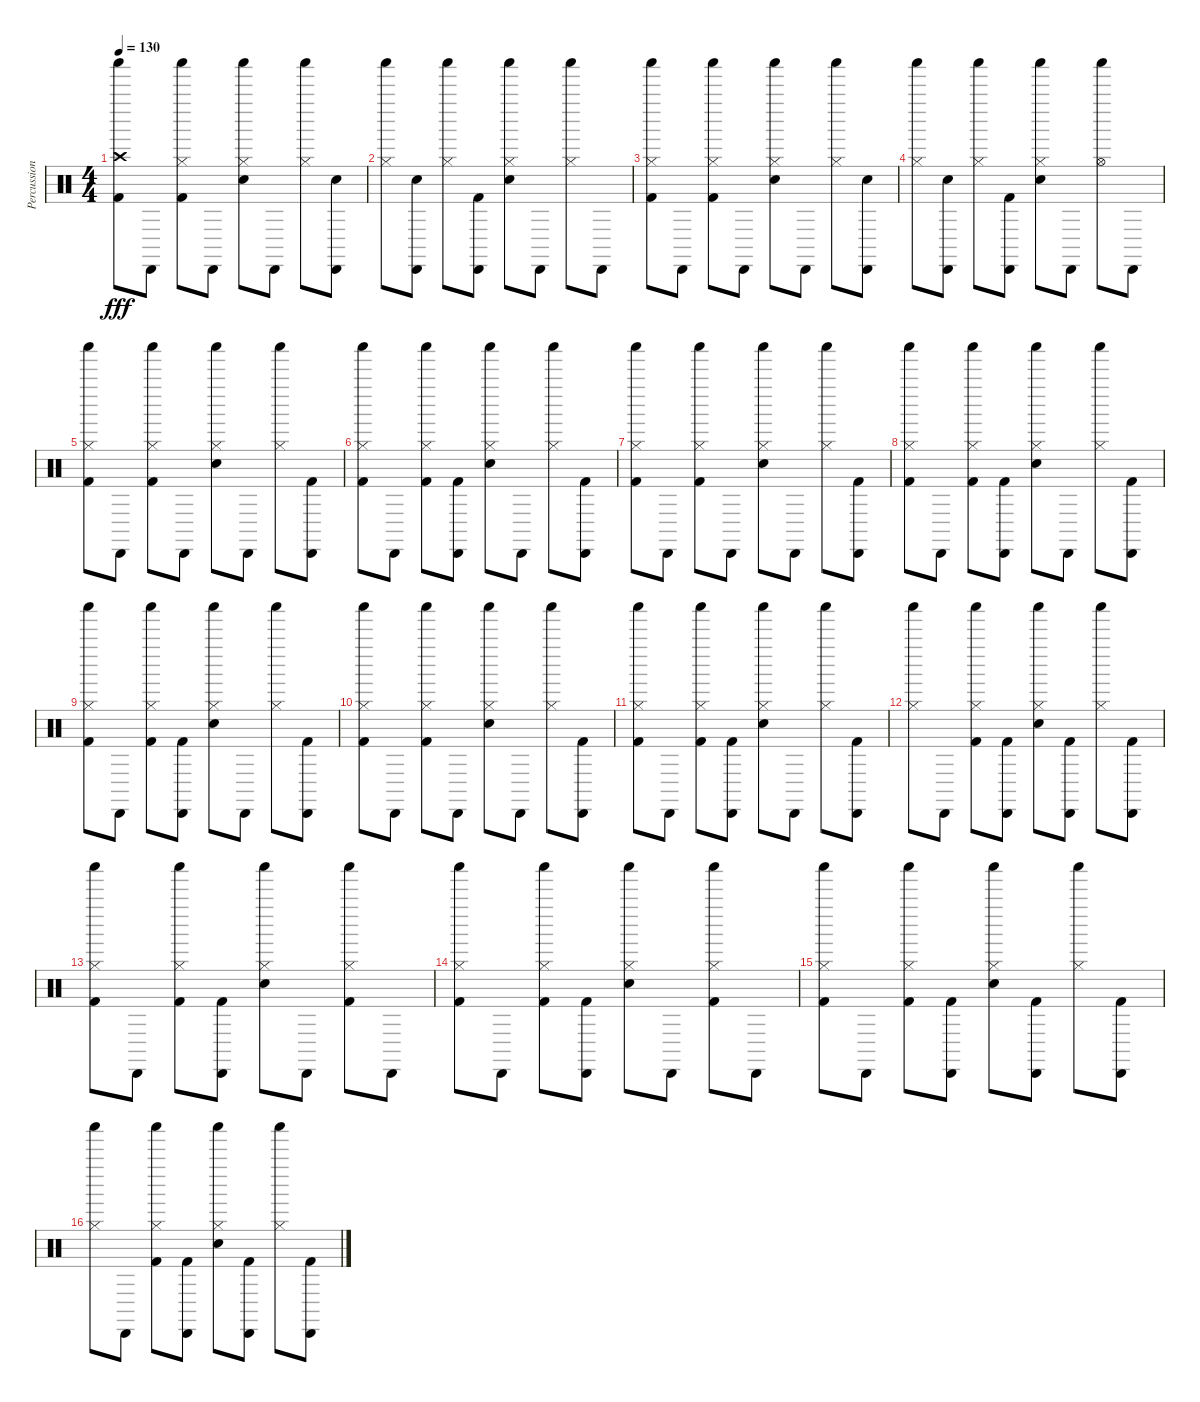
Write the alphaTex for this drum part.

\track ("Percussion" "Percussion") {instrument percussion}
\staff {score}
\articulation defaults
\ts (4 4)
\tempo 130
\clef neutral
\ks c
("Shaker (hit)" "Crash high (hit)" "Kick (hit) 2").8{dy fff} "Cabasa (hit)".8 ("Shaker (hit)" "Hi-Hat (closed)" "Kick (hit) 2").8 "Cabasa (hit)".8 ("Shaker (hit)" "Hi-Hat (closed)" "Snare (hit) 2").8 "Cabasa (hit)".8 ("Shaker (hit)" "Hi-Hat (closed)").8 ("Cabasa (hit)" "Snare (hit) 2").8 |
("Shaker (hit)" "Hi-Hat (closed)").8 ("Cabasa (hit)" "Snare (hit) 2").8 ("Shaker (hit)" "Hi-Hat (closed)").8 ("Cabasa (hit)" "Kick (hit) 2").8 ("Shaker (hit)" "Hi-Hat (closed)" "Snare (hit) 2").8 "Cabasa (hit)".8 ("Shaker (hit)" "Hi-Hat (closed)").8 "Cabasa (hit)".8 |
("Shaker (hit)" "Hi-Hat (closed)" "Kick (hit) 2").8 "Cabasa (hit)".8 ("Shaker (hit)" "Hi-Hat (closed)" "Kick (hit) 2").8 "Cabasa (hit)".8 ("Shaker (hit)" "Hi-Hat (closed)" "Snare (hit) 2").8 "Cabasa (hit)".8 ("Shaker (hit)" "Hi-Hat (closed)").8 ("Cabasa (hit)" "Snare (hit) 2").8 |
("Shaker (hit)" "Hi-Hat (closed)").8 ("Cabasa (hit)" "Snare (hit) 2").8 ("Shaker (hit)" "Hi-Hat (closed)").8 ("Cabasa (hit)" "Kick (hit) 2").8 ("Shaker (hit)" "Hi-Hat (closed)" "Snare (hit) 2").8 "Cabasa (hit)".8 ("Shaker (hit)" "Hi-Hat (open)").8 "Cabasa (hit)".8 |
("Shaker (hit)" "Hi-Hat (closed)" "Kick (hit) 2").8 "Cabasa (hit)".8 ("Shaker (hit)" "Hi-Hat (closed)" "Kick (hit) 2").8 "Cabasa (hit)".8 ("Shaker (hit)" "Hi-Hat (closed)" "Snare (hit) 2").8 "Cabasa (hit)".8 ("Shaker (hit)" "Hi-Hat (closed)").8 ("Cabasa (hit)" "Kick (hit) 2").8 |
("Shaker (hit)" "Hi-Hat (closed)" "Kick (hit) 2").8 "Cabasa (hit)".8 ("Shaker (hit)" "Hi-Hat (closed)" "Kick (hit) 2").8 ("Cabasa (hit)" "Kick (hit) 2").8 ("Shaker (hit)" "Hi-Hat (closed)" "Snare (hit) 2").8 "Cabasa (hit)".8 ("Shaker (hit)" "Hi-Hat (closed)").8 ("Cabasa (hit)" "Kick (hit) 2").8 |
("Shaker (hit)" "Hi-Hat (closed)" "Kick (hit) 2").8 "Cabasa (hit)".8 ("Shaker (hit)" "Hi-Hat (closed)" "Kick (hit) 2").8 "Cabasa (hit)".8 ("Shaker (hit)" "Hi-Hat (closed)" "Snare (hit) 2").8 "Cabasa (hit)".8 ("Shaker (hit)" "Hi-Hat (closed)").8 ("Cabasa (hit)" "Kick (hit) 2").8 |
("Shaker (hit)" "Hi-Hat (closed)" "Kick (hit) 2").8 "Cabasa (hit)".8 ("Shaker (hit)" "Hi-Hat (closed)" "Kick (hit) 2").8 ("Cabasa (hit)" "Kick (hit) 2").8 ("Shaker (hit)" "Hi-Hat (closed)" "Snare (hit) 2").8 "Cabasa (hit)".8 ("Shaker (hit)" "Hi-Hat (closed)").8 ("Cabasa (hit)" "Kick (hit) 2").8 |
("Shaker (hit)" "Hi-Hat (closed)" "Kick (hit) 2").8 "Cabasa (hit)".8 ("Shaker (hit)" "Hi-Hat (closed)" "Kick (hit) 2").8 ("Cabasa (hit)" "Kick (hit) 2").8 ("Shaker (hit)" "Hi-Hat (closed)" "Snare (hit) 2").8 "Cabasa (hit)".8 ("Shaker (hit)" "Hi-Hat (closed)").8 ("Cabasa (hit)" "Kick (hit) 2").8 |
("Shaker (hit)" "Hi-Hat (closed)" "Kick (hit) 2").8 "Cabasa (hit)".8 ("Shaker (hit)" "Hi-Hat (closed)" "Kick (hit) 2").8 "Cabasa (hit)".8 ("Shaker (hit)" "Hi-Hat (closed)" "Snare (hit) 2").8 "Cabasa (hit)".8 ("Shaker (hit)" "Hi-Hat (closed)").8 ("Cabasa (hit)" "Kick (hit) 2").8 |
("Shaker (hit)" "Hi-Hat (closed)" "Kick (hit) 2").8 "Cabasa (hit)".8 ("Shaker (hit)" "Hi-Hat (closed)" "Kick (hit) 2").8 ("Cabasa (hit)" "Kick (hit) 2").8 ("Shaker (hit)" "Hi-Hat (closed)" "Snare (hit) 2").8 "Cabasa (hit)".8 ("Shaker (hit)" "Hi-Hat (closed)").8 ("Cabasa (hit)" "Kick (hit) 2").8 |
("Shaker (hit)" "Hi-Hat (closed)").8 "Cabasa (hit)".8 ("Shaker (hit)" "Hi-Hat (closed)" "Kick (hit) 2").8 ("Cabasa (hit)" "Kick (hit) 2").8 ("Shaker (hit)" "Hi-Hat (closed)" "Snare (hit) 2").8 ("Cabasa (hit)" "Kick (hit) 2").8 ("Shaker (hit)" "Hi-Hat (closed)").8 ("Cabasa (hit)" "Kick (hit) 2").8 |
("Shaker (hit)" "Hi-Hat (closed)" "Kick (hit) 2").8 "Cabasa (hit)".8 ("Shaker (hit)" "Hi-Hat (closed)" "Kick (hit) 2").8 ("Cabasa (hit)" "Kick (hit) 2").8 ("Shaker (hit)" "Hi-Hat (closed)" "Snare (hit) 2").8 "Cabasa (hit)".8 ("Shaker (hit)" "Hi-Hat (closed)" "Kick (hit) 2").8 "Cabasa (hit)".8 |
("Shaker (hit)" "Hi-Hat (closed)" "Kick (hit) 2").8 "Cabasa (hit)".8 ("Shaker (hit)" "Hi-Hat (closed)" "Kick (hit) 2").8 ("Cabasa (hit)" "Kick (hit) 2").8 ("Shaker (hit)" "Hi-Hat (closed)" "Snare (hit) 2").8 "Cabasa (hit)".8 ("Shaker (hit)" "Hi-Hat (closed)" "Kick (hit) 2").8 "Cabasa (hit)".8 |
("Shaker (hit)" "Hi-Hat (closed)" "Kick (hit) 2").8 "Cabasa (hit)".8 ("Shaker (hit)" "Hi-Hat (closed)" "Kick (hit) 2").8 ("Cabasa (hit)" "Kick (hit) 2").8 ("Shaker (hit)" "Hi-Hat (closed)" "Snare (hit) 2").8 ("Cabasa (hit)" "Kick (hit) 2").8 ("Shaker (hit)" "Hi-Hat (closed)").8 ("Cabasa (hit)" "Kick (hit) 2").8 |
("Shaker (hit)" "Hi-Hat (closed)").8 "Cabasa (hit)".8 ("Shaker (hit)" "Hi-Hat (closed)" "Kick (hit) 2").8 ("Cabasa (hit)" "Kick (hit) 2").8 ("Shaker (hit)" "Hi-Hat (closed)" "Snare (hit) 2").8 ("Cabasa (hit)" "Kick (hit) 2").8 ("Shaker (hit)" "Hi-Hat (closed)").8 ("Cabasa (hit)" "Kick (hit) 2").8
